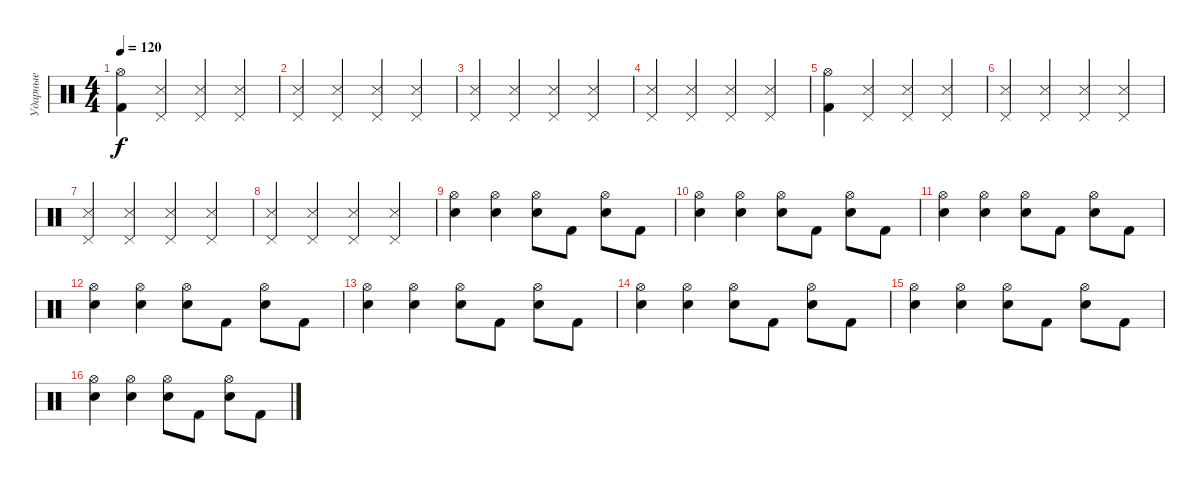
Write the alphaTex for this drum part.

\track ("Ударные" "Ударные") {instrument percussion}
\staff {score}
\articulation defaults
\ts (4 4)
\tempo 120
\clef neutral
\ks c
("Hi-Hat (open)" "Kick (hit) 2").4{dy f} ("Pedal Hi-Hat (hit)" "Metronome (hit)").4 ("Pedal Hi-Hat (hit)" "Metronome (hit)").4 ("Pedal Hi-Hat (hit)" "Metronome (hit)").4 |
("Pedal Hi-Hat (hit)" "Metronome (hit)").4 ("Pedal Hi-Hat (hit)" "Metronome (hit)").4 ("Pedal Hi-Hat (hit)" "Metronome (hit)").4 ("Pedal Hi-Hat (hit)" "Metronome (hit)").4 |
("Pedal Hi-Hat (hit)" "Metronome (hit)").4 ("Pedal Hi-Hat (hit)" "Metronome (hit)").4 ("Pedal Hi-Hat (hit)" "Metronome (hit)").4 ("Pedal Hi-Hat (hit)" "Metronome (hit)").4 |
("Pedal Hi-Hat (hit)" "Metronome (hit)").4 ("Pedal Hi-Hat (hit)" "Metronome (hit)").4 ("Pedal Hi-Hat (hit)" "Metronome (hit)").4 ("Pedal Hi-Hat (hit)" "Metronome (hit)").4 |
("Hi-Hat (open)" "Kick (hit) 2").4 ("Pedal Hi-Hat (hit)" "Metronome (hit)").4 ("Pedal Hi-Hat (hit)" "Metronome (hit)").4 ("Pedal Hi-Hat (hit)" "Metronome (hit)").4 |
("Pedal Hi-Hat (hit)" "Metronome (hit)").4 ("Pedal Hi-Hat (hit)" "Metronome (hit)").4 ("Pedal Hi-Hat (hit)" "Metronome (hit)").4 ("Pedal Hi-Hat (hit)" "Metronome (hit)").4 |
("Pedal Hi-Hat (hit)" "Metronome (hit)").4 ("Pedal Hi-Hat (hit)" "Metronome (hit)").4 ("Pedal Hi-Hat (hit)" "Metronome (hit)").4 ("Pedal Hi-Hat (hit)" "Metronome (hit)").4 |
("Pedal Hi-Hat (hit)" "Metronome (hit)").4 ("Pedal Hi-Hat (hit)" "Metronome (hit)").4 ("Pedal Hi-Hat (hit)" "Metronome (hit)").4 ("Pedal Hi-Hat (hit)" "Metronome (hit)").4 |
("Hi-Hat (open)" "Electric Snare (hit)").4 ("Hi-Hat (open)" "Electric Snare (hit)").4 ("Hi-Hat (open)" "Electric Snare (hit)").8 "Kick (hit) 2".8 ("Hi-Hat (open)" "Electric Snare (hit)").8 "Kick (hit) 2".8 |
("Hi-Hat (open)" "Electric Snare (hit)").4 ("Hi-Hat (open)" "Electric Snare (hit)").4 ("Hi-Hat (open)" "Electric Snare (hit)").8 "Kick (hit) 2".8 ("Hi-Hat (open)" "Electric Snare (hit)").8 "Kick (hit) 2".8 |
("Hi-Hat (open)" "Electric Snare (hit)").4 ("Hi-Hat (open)" "Electric Snare (hit)").4 ("Hi-Hat (open)" "Electric Snare (hit)").8 "Kick (hit) 2".8 ("Hi-Hat (open)" "Electric Snare (hit)").8 "Kick (hit) 2".8 |
("Hi-Hat (open)" "Electric Snare (hit)").4 ("Hi-Hat (open)" "Electric Snare (hit)").4 ("Hi-Hat (open)" "Electric Snare (hit)").8 "Kick (hit) 2".8 ("Hi-Hat (open)" "Electric Snare (hit)").8 "Kick (hit) 2".8 |
("Hi-Hat (open)" "Electric Snare (hit)").4 ("Hi-Hat (open)" "Electric Snare (hit)").4 ("Hi-Hat (open)" "Electric Snare (hit)").8 "Kick (hit) 2".8 ("Hi-Hat (open)" "Electric Snare (hit)").8 "Kick (hit) 2".8 |
("Hi-Hat (open)" "Electric Snare (hit)").4 ("Hi-Hat (open)" "Electric Snare (hit)").4 ("Hi-Hat (open)" "Electric Snare (hit)").8 "Kick (hit) 2".8 ("Hi-Hat (open)" "Electric Snare (hit)").8 "Kick (hit) 2".8 |
("Hi-Hat (open)" "Electric Snare (hit)").4 ("Hi-Hat (open)" "Electric Snare (hit)").4 ("Hi-Hat (open)" "Electric Snare (hit)").8 "Kick (hit) 2".8 ("Hi-Hat (open)" "Electric Snare (hit)").8 "Kick (hit) 2".8 |
("Hi-Hat (open)" "Electric Snare (hit)").4 ("Hi-Hat (open)" "Electric Snare (hit)").4 ("Hi-Hat (open)" "Electric Snare (hit)").8 "Kick (hit) 2".8 ("Hi-Hat (open)" "Electric Snare (hit)").8 "Kick (hit) 2".8
